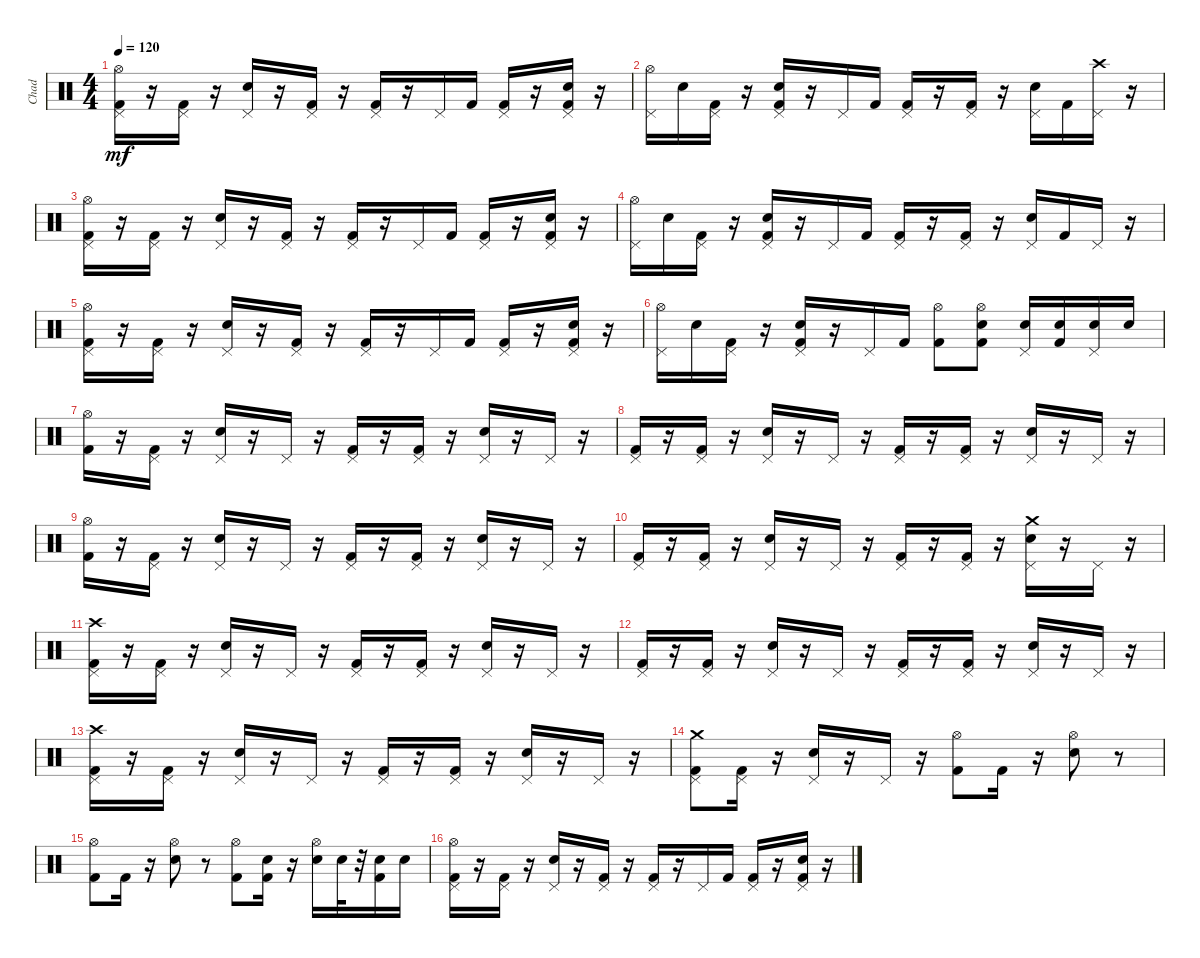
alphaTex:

\track ("Chad" "Chad") {instrument percussion}
\staff {score}
\articulation defaults
\ts (4 4)
\tempo 120
\clef neutral
\ks c
("Kick (hit) 2" "Pedal Hi-Hat (hit)" "Hi-Hat (open)").16{dy mf} r.16 ("Kick (hit) 2" "Pedal Hi-Hat (hit)").16 r.16 ("Snare (hit) 2" "Pedal Hi-Hat (hit)").16 r.16 ("Kick (hit) 2" "Pedal Hi-Hat (hit)").16 r.16 ("Kick (hit) 2" "Pedal Hi-Hat (hit)").16 r.16 "Pedal Hi-Hat (hit)".16 "Kick (hit) 2".16 ("Kick (hit) 2" "Pedal Hi-Hat (hit)").16 r.16 ("Kick (hit) 2" "Snare (hit) 2" "Pedal Hi-Hat (hit)").16 r.16 |
("Pedal Hi-Hat (hit)" "Hi-Hat (open)").16 "Snare (hit) 2".16 ("Kick (hit) 2" "Pedal Hi-Hat (hit)").16 r.16 ("Kick (hit) 2" "Snare (hit) 2" "Pedal Hi-Hat (hit)").16 r.16 "Pedal Hi-Hat (hit)".16 "Kick (hit) 2".16 ("Kick (hit) 2" "Pedal Hi-Hat (hit)").16 r.16 ("Kick (hit) 2" "Pedal Hi-Hat (hit)").16 r.16 ("Snare (hit) 2" "Pedal Hi-Hat (hit)").16 "Kick (hit) 2".16 ("Pedal Hi-Hat (hit)" "Crash high (hit)").16 r.16 |
("Kick (hit) 2" "Pedal Hi-Hat (hit)" "Hi-Hat (open)").16 r.16 ("Kick (hit) 2" "Pedal Hi-Hat (hit)").16 r.16 ("Snare (hit) 2" "Pedal Hi-Hat (hit)").16 r.16 ("Kick (hit) 2" "Pedal Hi-Hat (hit)").16 r.16 ("Kick (hit) 2" "Pedal Hi-Hat (hit)").16 r.16 "Pedal Hi-Hat (hit)".16 "Kick (hit) 2".16 ("Kick (hit) 2" "Pedal Hi-Hat (hit)").16 r.16 ("Kick (hit) 2" "Snare (hit) 2" "Pedal Hi-Hat (hit)").16 r.16 |
("Pedal Hi-Hat (hit)" "Hi-Hat (open)").16 "Snare (hit) 2".16 ("Kick (hit) 2" "Pedal Hi-Hat (hit)").16 r.16 ("Kick (hit) 2" "Snare (hit) 2" "Pedal Hi-Hat (hit)").16 r.16 "Pedal Hi-Hat (hit)".16 "Kick (hit) 2".16 ("Kick (hit) 2" "Pedal Hi-Hat (hit)").16 r.16 ("Kick (hit) 2" "Pedal Hi-Hat (hit)").16 r.16 ("Snare (hit) 2" "Pedal Hi-Hat (hit)").16 "Kick (hit) 2".16 "Pedal Hi-Hat (hit)".16 r.16 |
("Kick (hit) 2" "Pedal Hi-Hat (hit)" "Hi-Hat (open)").16 r.16 ("Kick (hit) 2" "Pedal Hi-Hat (hit)").16 r.16 ("Snare (hit) 2" "Pedal Hi-Hat (hit)").16 r.16 ("Kick (hit) 2" "Pedal Hi-Hat (hit)").16 r.16 ("Kick (hit) 2" "Pedal Hi-Hat (hit)").16 r.16 "Pedal Hi-Hat (hit)".16 "Kick (hit) 2".16 ("Kick (hit) 2" "Pedal Hi-Hat (hit)").16 r.16 ("Kick (hit) 2" "Snare (hit) 2" "Pedal Hi-Hat (hit)").16 r.16 |
("Pedal Hi-Hat (hit)" "Hi-Hat (open)").16 "Snare (hit) 2".16 ("Kick (hit) 2" "Pedal Hi-Hat (hit)").16 r.16 ("Kick (hit) 2" "Snare (hit) 2" "Pedal Hi-Hat (hit)").16 r.16 "Pedal Hi-Hat (hit)".16 "Kick (hit) 2".16 ("Kick (hit) 2" "Hi-Hat (open)").8 ("Kick (hit) 2" "Snare (hit) 2" "Hi-Hat (open)").8 ("Snare (hit) 2" "Pedal Hi-Hat (hit)").16 ("Kick (hit) 2" "Snare (hit) 2").16 ("Snare (hit) 2" "Pedal Hi-Hat (hit)").16 "Snare (hit) 2".16 |
("Kick (hit) 2" "Hi-Hat (open)").16 r.16 ("Kick (hit) 2" "Pedal Hi-Hat (hit)").16 r.16 ("Snare (hit) 2" "Pedal Hi-Hat (hit)").16 r.16 "Pedal Hi-Hat (hit)".16 r.16 ("Kick (hit) 2" "Pedal Hi-Hat (hit)").16 r.16 ("Kick (hit) 2" "Pedal Hi-Hat (hit)").16 r.16 ("Snare (hit) 2" "Pedal Hi-Hat (hit)").16 r.16 "Pedal Hi-Hat (hit)".16 r.16 |
("Kick (hit) 2" "Pedal Hi-Hat (hit)").16 r.16 ("Kick (hit) 2" "Pedal Hi-Hat (hit)").16 r.16 ("Snare (hit) 2" "Pedal Hi-Hat (hit)").16 r.16 "Pedal Hi-Hat (hit)".16 r.16 ("Kick (hit) 2" "Pedal Hi-Hat (hit)").16 r.16 ("Kick (hit) 2" "Pedal Hi-Hat (hit)").16 r.16 ("Snare (hit) 2" "Pedal Hi-Hat (hit)").16 r.16 "Pedal Hi-Hat (hit)".16 r.16 |
("Kick (hit) 2" "Hi-Hat (open)").16 r.16 ("Kick (hit) 2" "Pedal Hi-Hat (hit)").16 r.16 ("Snare (hit) 2" "Pedal Hi-Hat (hit)").16 r.16 "Pedal Hi-Hat (hit)".16 r.16 ("Kick (hit) 2" "Pedal Hi-Hat (hit)").16 r.16 ("Kick (hit) 2" "Pedal Hi-Hat (hit)").16 r.16 ("Snare (hit) 2" "Pedal Hi-Hat (hit)").16 r.16 "Pedal Hi-Hat (hit)".16 r.16 |
("Kick (hit) 2" "Pedal Hi-Hat (hit)").16 r.16 ("Kick (hit) 2" "Pedal Hi-Hat (hit)").16 r.16 ("Snare (hit) 2" "Pedal Hi-Hat (hit)").16 r.16 "Pedal Hi-Hat (hit)".16 r.16 ("Kick (hit) 2" "Pedal Hi-Hat (hit)").16 r.16 ("Kick (hit) 2" "Pedal Hi-Hat (hit)").16 r.16 ("Snare (hit) 2" "Pedal Hi-Hat (hit)" "Crash medium (hit)").16 r.16 "Pedal Hi-Hat (hit)".16 r.16 |
("Kick (hit) 2" "Pedal Hi-Hat (hit)" "Crash high (hit)").16 r.16 ("Kick (hit) 2" "Pedal Hi-Hat (hit)").16 r.16 ("Snare (hit) 2" "Pedal Hi-Hat (hit)").16 r.16 "Pedal Hi-Hat (hit)".16 r.16 ("Kick (hit) 2" "Pedal Hi-Hat (hit)").16 r.16 ("Kick (hit) 2" "Pedal Hi-Hat (hit)").16 r.16 ("Snare (hit) 2" "Pedal Hi-Hat (hit)").16 r.16 "Pedal Hi-Hat (hit)".16 r.16 |
("Kick (hit) 2" "Pedal Hi-Hat (hit)").16 r.16 ("Kick (hit) 2" "Pedal Hi-Hat (hit)").16 r.16 ("Snare (hit) 2" "Pedal Hi-Hat (hit)").16 r.16 "Pedal Hi-Hat (hit)".16 r.16 ("Kick (hit) 2" "Pedal Hi-Hat (hit)").16 r.16 ("Kick (hit) 2" "Pedal Hi-Hat (hit)").16 r.16 ("Snare (hit) 2" "Pedal Hi-Hat (hit)").16 r.16 "Pedal Hi-Hat (hit)".16 r.16 |
("Kick (hit) 2" "Pedal Hi-Hat (hit)" "Crash high (hit)").16 r.16 ("Kick (hit) 2" "Pedal Hi-Hat (hit)").16 r.16 ("Snare (hit) 2" "Pedal Hi-Hat (hit)").16 r.16 "Pedal Hi-Hat (hit)".16 r.16 ("Kick (hit) 2" "Pedal Hi-Hat (hit)").16 r.16 ("Kick (hit) 2" "Pedal Hi-Hat (hit)").16 r.16 ("Snare (hit) 2" "Pedal Hi-Hat (hit)").16 r.16 "Pedal Hi-Hat (hit)".16 r.16 |
("Kick (hit) 2" "Pedal Hi-Hat (hit)" "Crash medium (hit)").8 ("Kick (hit) 2" "Pedal Hi-Hat (hit)").16 r.16 ("Snare (hit) 2" "Pedal Hi-Hat (hit)").16 r.16 "Pedal Hi-Hat (hit)".16 r.16 ("Kick (hit) 2" "Hi-Hat (open)").8 "Kick (hit) 2".16 r.16 ("Snare (hit) 2" "Hi-Hat (open)").8 r.8 |
("Hi-Hat (open)" "Kick (hit) 2").8 "Kick (hit) 2".16 r.16 ("Snare (hit) 2" "Hi-Hat (open)").8 r.8 ("Kick (hit) 2" "Hi-Hat (open)").8 ("Kick (hit) 2" "Snare (hit) 2").16 r.16 ("Snare (hit) 2" "Hi-Hat (open)").16 "Snare (hit) 2".32 r.32 ("Kick (hit) 2" "Snare (hit) 2").16 "Snare (hit) 2".16 |
("Kick (hit) 2" "Pedal Hi-Hat (hit)" "Hi-Hat (open)").16 r.16 ("Kick (hit) 2" "Pedal Hi-Hat (hit)").16 r.16 ("Snare (hit) 2" "Pedal Hi-Hat (hit)").16 r.16 ("Kick (hit) 2" "Pedal Hi-Hat (hit)").16 r.16 ("Kick (hit) 2" "Pedal Hi-Hat (hit)").16 r.16 "Pedal Hi-Hat (hit)".16 "Kick (hit) 2".16 ("Kick (hit) 2" "Pedal Hi-Hat (hit)").16 r.16 ("Kick (hit) 2" "Snare (hit) 2" "Pedal Hi-Hat (hit)").16 r.16
